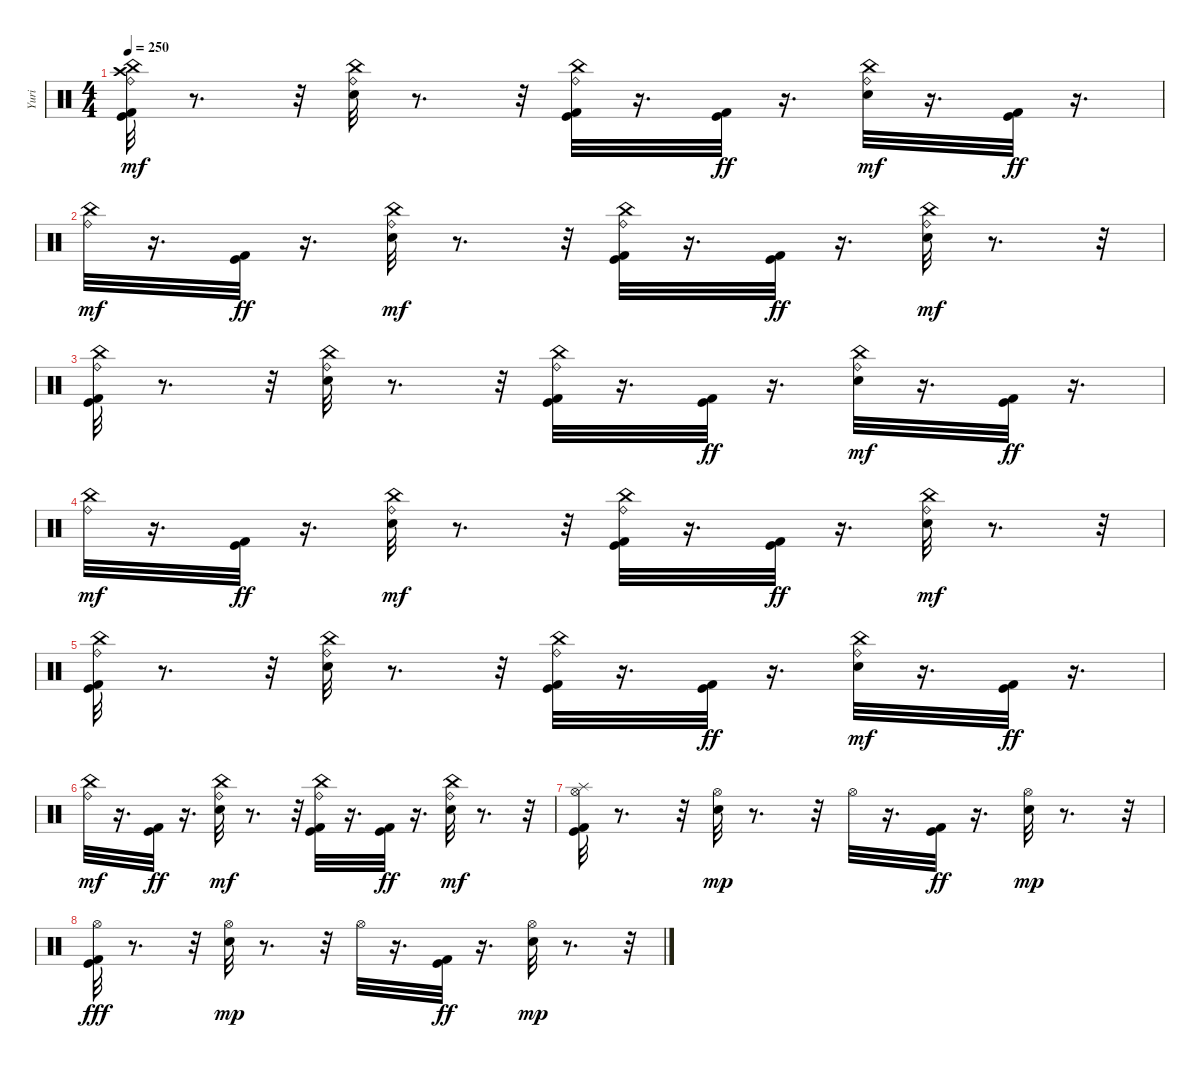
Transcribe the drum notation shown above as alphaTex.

\track ("Yuri" "Yuri") {instrument percussion}
\staff {score}
\articulation defaults
\ts (4 4)
\tempo 250
\clef neutral
\ks c
("Kick (hit) 2" "Kick (hit)" "Crash high (hit)" "Ride (bell)" "China (hit)").32{dy mf} r.8{d} r.32 ("Snare (hit) 2" "Ride (bell)" "China (hit)").32 r.8{d} r.32 ("Kick (hit) 2" "Kick (hit)" "Ride (bell)" "China (hit)").32 r.16{d} ("Kick (hit) 2" "Kick (hit)").32{dy ff} r.16{d} ("Snare (hit) 2" "Ride (bell)" "China (hit)").32{dy mf} r.16{d} ("Kick (hit) 2" "Kick (hit)").32{dy ff} r.16{d} |
("Ride (bell)" "China (hit)").32{dy mf} r.16{d} ("Kick (hit) 2" "Kick (hit)").32{dy ff} r.16{d} ("Snare (hit) 2" "Ride (bell)" "China (hit)").32{dy mf} r.8{d} r.32 ("Kick (hit) 2" "Kick (hit)" "Ride (bell)" "China (hit)").32 r.16{d} ("Kick (hit) 2" "Kick (hit)").32{dy ff} r.16{d} ("Snare (hit) 2" "Ride (bell)" "China (hit)").32{dy mf} r.8{d} r.32 |
("Kick (hit) 2" "Kick (hit)" "Ride (bell)" "China (hit)").32 r.8{d} r.32 ("Snare (hit) 2" "Ride (bell)" "China (hit)").32 r.8{d} r.32 ("Kick (hit) 2" "Kick (hit)" "Ride (bell)" "China (hit)").32 r.16{d} ("Kick (hit) 2" "Kick (hit)").32{dy ff} r.16{d} ("Snare (hit) 2" "Ride (bell)" "China (hit)").32{dy mf} r.16{d} ("Kick (hit) 2" "Kick (hit)").32{dy ff} r.16{d} |
("Ride (bell)" "China (hit)").32{dy mf} r.16{d} ("Kick (hit) 2" "Kick (hit)").32{dy ff} r.16{d} ("Snare (hit) 2" "Ride (bell)" "China (hit)").32{dy mf} r.8{d} r.32 ("Kick (hit) 2" "Kick (hit)" "Ride (bell)" "China (hit)").32 r.16{d} ("Kick (hit) 2" "Kick (hit)").32{dy ff} r.16{d} ("Snare (hit) 2" "Ride (bell)" "China (hit)").32{dy mf} r.8{d} r.32 |
("Kick (hit) 2" "Kick (hit)" "Ride (bell)" "China (hit)").32 r.8{d} r.32 ("Snare (hit) 2" "Ride (bell)" "China (hit)").32 r.8{d} r.32 ("Kick (hit) 2" "Kick (hit)" "Ride (bell)" "China (hit)").32 r.16{d} ("Kick (hit) 2" "Kick (hit)").32{dy ff} r.16{d} ("Snare (hit) 2" "Ride (bell)" "China (hit)").32{dy mf} r.16{d} ("Kick (hit) 2" "Kick (hit)").32{dy ff} r.16{d} |
("Ride (bell)" "China (hit)").32{dy mf} r.16{d} ("Kick (hit) 2" "Kick (hit)").32{dy ff} r.16{d} ("Snare (hit) 2" "Ride (bell)" "China (hit)").32{dy mf} r.8{d} r.32 ("Kick (hit) 2" "Kick (hit)" "Ride (bell)" "China (hit)").32 r.16{d} ("Kick (hit) 2" "Kick (hit)").32{dy ff} r.16{d} ("Snare (hit) 2" "Ride (bell)" "China (hit)").32{dy mf} r.8{d} r.32 |
("Kick (hit) 2" "Kick (hit)" "Hi-Hat (open)" "Splash (hit)").32 r.8{d} r.32 ("Snare (hit) 2" "Hi-Hat (open)").32{dy mp} r.8{d} r.32 "Hi-Hat (open)".32 r.16{d} ("Kick (hit) 2" "Kick (hit)").32{dy ff} r.16{d} ("Snare (hit) 2" "Hi-Hat (open)").32{dy mp} r.8{d} r.32 |
("Hi-Hat (open)" "Kick (hit) 2" "Kick (hit)").32{dy fff} r.8{d} r.32 ("Snare (hit) 2" "Hi-Hat (open)").32{dy mp} r.8{d} r.32 "Hi-Hat (open)".32 r.16{d} ("Kick (hit) 2" "Kick (hit)").32{dy ff} r.16{d} ("Snare (hit) 2" "Hi-Hat (open)").32{dy mp} r.8{d} r.32
